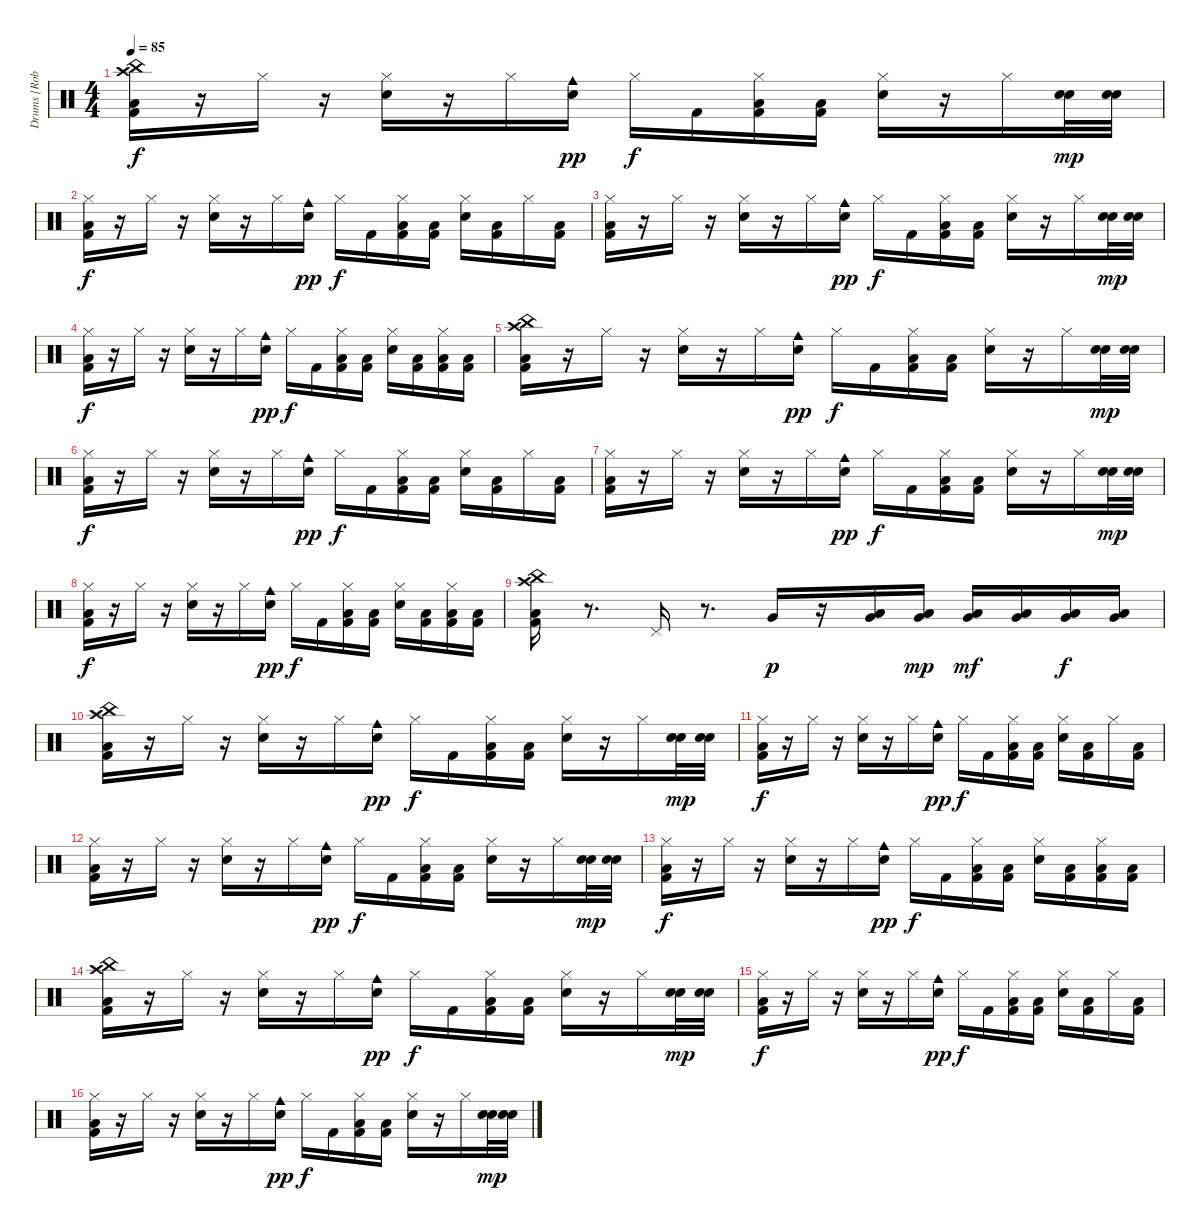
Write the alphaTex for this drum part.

\track ("Drums [Rob Bourdon]" "Drums [Rob") {instrument percussion}
\staff {score}
\articulation defaults
\ts (4 4)
\tempo 85
\clef neutral
\ks c
("China (hit)" "Crash high (hit)" "Low Floor Tom (hit)" "Kick (hit) 2").16{dy f} r.16 "Hi-Hat (closed)".16 r.16 ("Hi-Hat (closed)" "Snare (hit) 2").16 r.16 "Hi-Hat (closed)".16 ("Snare (hit) 2" "Cowbell medium (hit)").16{dy pp} "Hi-Hat (closed)".16{dy f} "Kick (hit) 2".16 ("Hi-Hat (closed)" "Low Floor Tom (hit)" "Kick (hit) 2").16 ("Low Floor Tom (hit)" "Kick (hit) 2").16 ("Hi-Hat (closed)" "Snare (hit) 2").16 r.16 "Hi-Hat (closed)".16 ("Snare (hit) 2" "Snare (hit) 2").32{dy mp} ("Snare (hit) 2" "Snare (hit) 2").32 |
("Hi-Hat (closed)" "Low Floor Tom (hit)" "Kick (hit) 2").16{dy f} r.16 "Hi-Hat (closed)".16 r.16 ("Hi-Hat (closed)" "Snare (hit) 2").16 r.16 "Hi-Hat (closed)".16 ("Snare (hit) 2" "Cowbell medium (hit)").16{dy pp} "Hi-Hat (closed)".16{dy f} "Kick (hit) 2".16 ("Hi-Hat (closed)" "Low Floor Tom (hit)" "Kick (hit) 2").16 ("Low Floor Tom (hit)" "Kick (hit) 2").16 ("Hi-Hat (closed)" "Snare (hit) 2").16 ("Low Floor Tom (hit)" "Kick (hit) 2").16 "Hi-Hat (closed)".16 ("Low Floor Tom (hit)" "Kick (hit) 2").16 |
("Hi-Hat (closed)" "Low Floor Tom (hit)" "Kick (hit) 2").16 r.16 "Hi-Hat (closed)".16 r.16 ("Hi-Hat (closed)" "Snare (hit) 2").16 r.16 "Hi-Hat (closed)".16 ("Snare (hit) 2" "Cowbell medium (hit)").16{dy pp} "Hi-Hat (closed)".16{dy f} "Kick (hit) 2".16 ("Hi-Hat (closed)" "Low Floor Tom (hit)" "Kick (hit) 2").16 ("Low Floor Tom (hit)" "Kick (hit) 2").16 ("Hi-Hat (closed)" "Snare (hit) 2").16 r.16 "Hi-Hat (closed)".16 ("Snare (hit) 2" "Snare (hit) 2").32{dy mp} ("Snare (hit) 2" "Snare (hit) 2").32 |
("Hi-Hat (closed)" "Low Floor Tom (hit)" "Kick (hit) 2").16{dy f} r.16 "Hi-Hat (closed)".16 r.16 ("Hi-Hat (closed)" "Snare (hit) 2").16 r.16 "Hi-Hat (closed)".16 ("Snare (hit) 2" "Cowbell medium (hit)").16{dy pp} "Hi-Hat (closed)".16{dy f} "Kick (hit) 2".16 ("Hi-Hat (closed)" "Low Floor Tom (hit)" "Kick (hit) 2").16 ("Low Floor Tom (hit)" "Kick (hit) 2").16 ("Hi-Hat (closed)" "Snare (hit) 2").16 ("Low Floor Tom (hit)" "Kick (hit) 2").16 ("Hi-Hat (closed)" "Low Floor Tom (hit)" "Kick (hit) 2").16 ("Low Floor Tom (hit)" "Kick (hit) 2").16 |
("China (hit)" "Crash high (hit)" "Low Floor Tom (hit)" "Kick (hit) 2").16 r.16 "Hi-Hat (closed)".16 r.16 ("Hi-Hat (closed)" "Snare (hit) 2").16 r.16 "Hi-Hat (closed)".16 ("Snare (hit) 2" "Cowbell medium (hit)").16{dy pp} "Hi-Hat (closed)".16{dy f} "Kick (hit) 2".16 ("Hi-Hat (closed)" "Low Floor Tom (hit)" "Kick (hit) 2").16 ("Low Floor Tom (hit)" "Kick (hit) 2").16 ("Hi-Hat (closed)" "Snare (hit) 2").16 r.16 "Hi-Hat (closed)".16 ("Snare (hit) 2" "Snare (hit) 2").32{dy mp} ("Snare (hit) 2" "Snare (hit) 2").32 |
("Hi-Hat (closed)" "Low Floor Tom (hit)" "Kick (hit) 2").16{dy f} r.16 "Hi-Hat (closed)".16 r.16 ("Hi-Hat (closed)" "Snare (hit) 2").16 r.16 "Hi-Hat (closed)".16 ("Snare (hit) 2" "Cowbell medium (hit)").16{dy pp} "Hi-Hat (closed)".16{dy f} "Kick (hit) 2".16 ("Hi-Hat (closed)" "Low Floor Tom (hit)" "Kick (hit) 2").16 ("Low Floor Tom (hit)" "Kick (hit) 2").16 ("Hi-Hat (closed)" "Snare (hit) 2").16 ("Low Floor Tom (hit)" "Kick (hit) 2").16 "Hi-Hat (closed)".16 ("Low Floor Tom (hit)" "Kick (hit) 2").16 |
("Hi-Hat (closed)" "Low Floor Tom (hit)" "Kick (hit) 2").16 r.16 "Hi-Hat (closed)".16 r.16 ("Hi-Hat (closed)" "Snare (hit) 2").16 r.16 "Hi-Hat (closed)".16 ("Snare (hit) 2" "Cowbell medium (hit)").16{dy pp} "Hi-Hat (closed)".16{dy f} "Kick (hit) 2".16 ("Hi-Hat (closed)" "Low Floor Tom (hit)" "Kick (hit) 2").16 ("Low Floor Tom (hit)" "Kick (hit) 2").16 ("Hi-Hat (closed)" "Snare (hit) 2").16 r.16 "Hi-Hat (closed)".16 ("Snare (hit) 2" "Snare (hit) 2").32{dy mp} ("Snare (hit) 2" "Snare (hit) 2").32 |
("Hi-Hat (closed)" "Low Floor Tom (hit)" "Kick (hit) 2").16{dy f} r.16 "Hi-Hat (closed)".16 r.16 ("Hi-Hat (closed)" "Snare (hit) 2").16 r.16 "Hi-Hat (closed)".16 ("Snare (hit) 2" "Cowbell medium (hit)").16{dy pp} "Hi-Hat (closed)".16{dy f} "Kick (hit) 2".16 ("Hi-Hat (closed)" "Low Floor Tom (hit)" "Kick (hit) 2").16 ("Low Floor Tom (hit)" "Kick (hit) 2").16 ("Hi-Hat (closed)" "Snare (hit) 2").16 ("Low Floor Tom (hit)" "Kick (hit) 2").16 ("Hi-Hat (closed)" "Low Floor Tom (hit)" "Kick (hit) 2").16 ("Low Floor Tom (hit)" "Kick (hit) 2").16 |
("China (hit)" "Crash high (hit)" "Low Floor Tom (hit)" "Kick (hit) 2").16 r.8{d} "Pedal Hi-Hat (hit)".16 r.8{d} "Very Low Tom (hit)".16{dy p} r.16 ("Low Tom (hit)" "Very Low Tom (hit)").16 ("Low Tom (hit)" "Very Low Tom (hit)").16{dy mp} ("Low Tom (hit)" "Very Low Tom (hit)").16{dy mf} ("Low Tom (hit)" "Very Low Tom (hit)").16 ("Low Tom (hit)" "Very Low Tom (hit)").16{dy f} ("Low Tom (hit)" "Very Low Tom (hit)").16 |
("China (hit)" "Crash high (hit)" "Low Floor Tom (hit)" "Kick (hit) 2").16 r.16 "Hi-Hat (closed)".16 r.16 ("Hi-Hat (closed)" "Snare (hit) 2").16 r.16 "Hi-Hat (closed)".16 ("Snare (hit) 2" "Cowbell medium (hit)").16{dy pp} "Hi-Hat (closed)".16{dy f} "Kick (hit) 2".16 ("Hi-Hat (closed)" "Low Floor Tom (hit)" "Kick (hit) 2").16 ("Low Floor Tom (hit)" "Kick (hit) 2").16 ("Hi-Hat (closed)" "Snare (hit) 2").16 r.16 "Hi-Hat (closed)".16 ("Snare (hit) 2" "Snare (hit) 2").32{dy mp} ("Snare (hit) 2" "Snare (hit) 2").32 |
("Hi-Hat (closed)" "Low Floor Tom (hit)" "Kick (hit) 2").16{dy f} r.16 "Hi-Hat (closed)".16 r.16 ("Hi-Hat (closed)" "Snare (hit) 2").16 r.16 "Hi-Hat (closed)".16 ("Snare (hit) 2" "Cowbell medium (hit)").16{dy pp} "Hi-Hat (closed)".16{dy f} "Kick (hit) 2".16 ("Hi-Hat (closed)" "Low Floor Tom (hit)" "Kick (hit) 2").16 ("Low Floor Tom (hit)" "Kick (hit) 2").16 ("Hi-Hat (closed)" "Snare (hit) 2").16 ("Low Floor Tom (hit)" "Kick (hit) 2").16 "Hi-Hat (closed)".16 ("Low Floor Tom (hit)" "Kick (hit) 2").16 |
("Hi-Hat (closed)" "Low Floor Tom (hit)" "Kick (hit) 2").16 r.16 "Hi-Hat (closed)".16 r.16 ("Hi-Hat (closed)" "Snare (hit) 2").16 r.16 "Hi-Hat (closed)".16 ("Snare (hit) 2" "Cowbell medium (hit)").16{dy pp} "Hi-Hat (closed)".16{dy f} "Kick (hit) 2".16 ("Hi-Hat (closed)" "Low Floor Tom (hit)" "Kick (hit) 2").16 ("Low Floor Tom (hit)" "Kick (hit) 2").16 ("Hi-Hat (closed)" "Snare (hit) 2").16 r.16 "Hi-Hat (closed)".16 ("Snare (hit) 2" "Snare (hit) 2").32{dy mp} ("Snare (hit) 2" "Snare (hit) 2").32 |
("Hi-Hat (closed)" "Low Floor Tom (hit)" "Kick (hit) 2").16{dy f} r.16 "Hi-Hat (closed)".16 r.16 ("Hi-Hat (closed)" "Snare (hit) 2").16 r.16 "Hi-Hat (closed)".16 ("Snare (hit) 2" "Cowbell medium (hit)").16{dy pp} "Hi-Hat (closed)".16{dy f} "Kick (hit) 2".16 ("Hi-Hat (closed)" "Low Floor Tom (hit)" "Kick (hit) 2").16 ("Low Floor Tom (hit)" "Kick (hit) 2").16 ("Hi-Hat (closed)" "Snare (hit) 2").16 ("Low Floor Tom (hit)" "Kick (hit) 2").16 ("Hi-Hat (closed)" "Low Floor Tom (hit)" "Kick (hit) 2").16 ("Low Floor Tom (hit)" "Kick (hit) 2").16 |
("China (hit)" "Crash high (hit)" "Low Floor Tom (hit)" "Kick (hit) 2").16 r.16 "Hi-Hat (closed)".16 r.16 ("Hi-Hat (closed)" "Snare (hit) 2").16 r.16 "Hi-Hat (closed)".16 ("Snare (hit) 2" "Cowbell medium (hit)").16{dy pp} "Hi-Hat (closed)".16{dy f} "Kick (hit) 2".16 ("Hi-Hat (closed)" "Low Floor Tom (hit)" "Kick (hit) 2").16 ("Low Floor Tom (hit)" "Kick (hit) 2").16 ("Hi-Hat (closed)" "Snare (hit) 2").16 r.16 "Hi-Hat (closed)".16 ("Snare (hit) 2" "Snare (hit) 2").32{dy mp} ("Snare (hit) 2" "Snare (hit) 2").32 |
("Hi-Hat (closed)" "Low Floor Tom (hit)" "Kick (hit) 2").16{dy f} r.16 "Hi-Hat (closed)".16 r.16 ("Hi-Hat (closed)" "Snare (hit) 2").16 r.16 "Hi-Hat (closed)".16 ("Snare (hit) 2" "Cowbell medium (hit)").16{dy pp} "Hi-Hat (closed)".16{dy f} "Kick (hit) 2".16 ("Hi-Hat (closed)" "Low Floor Tom (hit)" "Kick (hit) 2").16 ("Low Floor Tom (hit)" "Kick (hit) 2").16 ("Hi-Hat (closed)" "Snare (hit) 2").16 ("Low Floor Tom (hit)" "Kick (hit) 2").16 "Hi-Hat (closed)".16 ("Low Floor Tom (hit)" "Kick (hit) 2").16 |
("Hi-Hat (closed)" "Low Floor Tom (hit)" "Kick (hit) 2").16 r.16 "Hi-Hat (closed)".16 r.16 ("Hi-Hat (closed)" "Snare (hit) 2").16 r.16 "Hi-Hat (closed)".16 ("Snare (hit) 2" "Cowbell medium (hit)").16{dy pp} "Hi-Hat (closed)".16{dy f} "Kick (hit) 2".16 ("Hi-Hat (closed)" "Low Floor Tom (hit)" "Kick (hit) 2").16 ("Low Floor Tom (hit)" "Kick (hit) 2").16 ("Hi-Hat (closed)" "Snare (hit) 2").16 r.16 "Hi-Hat (closed)".16 ("Snare (hit) 2" "Snare (hit) 2").32{dy mp} ("Snare (hit) 2" "Snare (hit) 2").32
